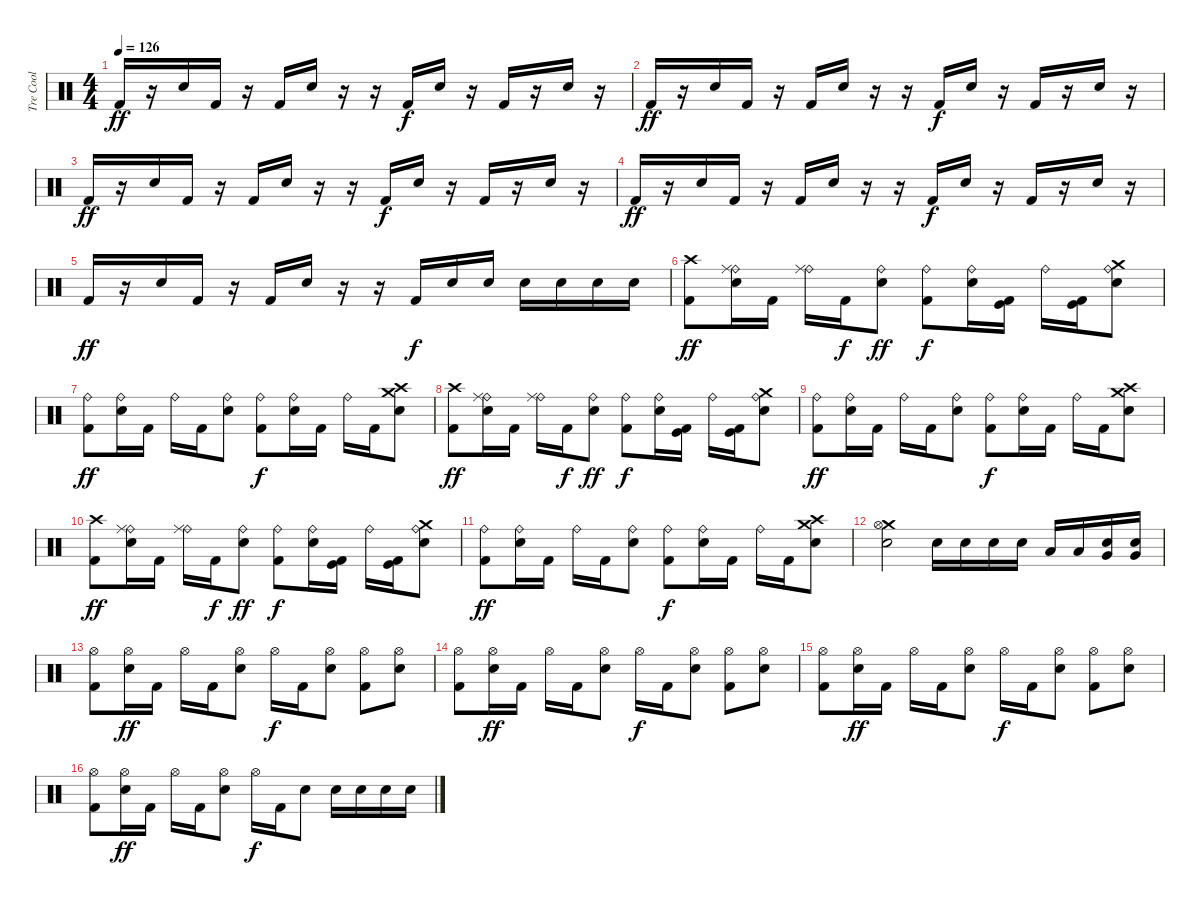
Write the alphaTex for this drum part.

\track ("Tre Cool" "Tre Cool") {instrument percussion}
\staff {score}
\articulation defaults
\ts (4 4)
\tempo 126
\clef neutral
\ks c "Kick (hit) 2".16{dy ff}
r.16 "Snare (hit) 2".16 "Kick (hit) 2".16 r.16 "Kick (hit) 2".16 "Snare (hit) 2".16 r.16 r.16 "Kick (hit) 2".16{dy f} "Snare (hit) 2".16 r.16 "Kick (hit) 2".16 r.16 "Snare (hit) 2".16 r.16 |
"Kick (hit) 2".16{dy ff} r.16 "Snare (hit) 2".16 "Kick (hit) 2".16 r.16 "Kick (hit) 2".16 "Snare (hit) 2".16 r.16 r.16 "Kick (hit) 2".16{dy f} "Snare (hit) 2".16 r.16 "Kick (hit) 2".16 r.16 "Snare (hit) 2".16 r.16 |
"Kick (hit) 2".16{dy ff} r.16 "Snare (hit) 2".16 "Kick (hit) 2".16 r.16 "Kick (hit) 2".16 "Snare (hit) 2".16 r.16 r.16 "Kick (hit) 2".16{dy f} "Snare (hit) 2".16 r.16 "Kick (hit) 2".16 r.16 "Snare (hit) 2".16 r.16 |
"Kick (hit) 2".16{dy ff} r.16 "Snare (hit) 2".16 "Kick (hit) 2".16 r.16 "Kick (hit) 2".16 "Snare (hit) 2".16 r.16 r.16 "Kick (hit) 2".16{dy f} "Snare (hit) 2".16 r.16 "Kick (hit) 2".16 r.16 "Snare (hit) 2".16 r.16 |
"Kick (hit) 2".16{dy ff} r.16 "Snare (hit) 2".16 "Kick (hit) 2".16 r.16 "Kick (hit) 2".16 "Snare (hit) 2".16 r.16 r.16 "Kick (hit) 2".16{dy f} "Snare (hit) 2".16 "Snare (hit) 2".16 "Snare (hit) 2".16 "Snare (hit) 2".16 "Snare (hit) 2".16 "Snare (hit) 2".16 |
("Crash high (hit)" "Kick (hit) 2").8{dy ff} ("Ride (bell)" "Ride (middle)" "Snare (hit) 2").16 "Kick (hit) 2".16 ("Ride (bell)" "Ride (middle)").16 "Kick (hit) 2".16{dy f} ("Snare (hit) 2" "Ride (bell)").8{dy ff} ("Ride (bell)" "Kick (hit) 2").8{dy f} ("Ride (bell)" "Snare (hit) 2").16 ("Kick (hit)" "Kick (hit) 2").16 "Ride (bell)".16 ("Kick (hit)" "Kick (hit) 2").16 ("Ride (bell)" "Crash medium (hit)" "Snare (hit) 2").8 |
("Ride (bell)" "Kick (hit) 2").8{dy ff} ("Ride (bell)" "Snare (hit) 2").16 "Kick (hit) 2".16 "Ride (bell)".16 "Kick (hit) 2".16 ("Ride (bell)" "Snare (hit) 2").8 ("Ride (bell)" "Kick (hit) 2").8{dy f} ("Ride (bell)" "Snare (hit) 2").16 "Kick (hit) 2".16 "Ride (bell)".16 "Kick (hit) 2".16 ("Crash high (hit)" "Crash medium (hit)" "Snare (hit) 2").8 |
("Crash high (hit)" "Kick (hit) 2").8{dy ff} ("Ride (bell)" "Ride (middle)" "Snare (hit) 2").16 "Kick (hit) 2".16 ("Ride (bell)" "Ride (middle)").16 "Kick (hit) 2".16{dy f} ("Snare (hit) 2" "Ride (bell)").8{dy ff} ("Ride (bell)" "Kick (hit) 2").8{dy f} ("Ride (bell)" "Snare (hit) 2").16 ("Kick (hit)" "Kick (hit) 2").16 "Ride (bell)".16 ("Kick (hit)" "Kick (hit) 2").16 ("Ride (bell)" "Crash medium (hit)" "Snare (hit) 2").8 |
("Ride (bell)" "Kick (hit) 2").8{dy ff} ("Ride (bell)" "Snare (hit) 2").16 "Kick (hit) 2".16 "Ride (bell)".16 "Kick (hit) 2".16 ("Ride (bell)" "Snare (hit) 2").8 ("Ride (bell)" "Kick (hit) 2").8{dy f} ("Ride (bell)" "Snare (hit) 2").16 "Kick (hit) 2".16 "Ride (bell)".16 "Kick (hit) 2".16 ("Crash high (hit)" "Crash medium (hit)" "Snare (hit) 2").8 |
("Crash high (hit)" "Kick (hit) 2").8{dy ff} ("Ride (bell)" "Ride (middle)" "Snare (hit) 2").16 "Kick (hit) 2".16 ("Ride (bell)" "Ride (middle)").16 "Kick (hit) 2".16{dy f} ("Snare (hit) 2" "Ride (bell)").8{dy ff} ("Ride (bell)" "Kick (hit) 2").8{dy f} ("Ride (bell)" "Snare (hit) 2").16 ("Kick (hit)" "Kick (hit) 2").16 "Ride (bell)".16 ("Kick (hit)" "Kick (hit) 2").16 ("Ride (bell)" "Crash medium (hit)" "Snare (hit) 2").8 |
("Ride (bell)" "Kick (hit) 2").8{dy ff} ("Ride (bell)" "Snare (hit) 2").16 "Kick (hit) 2".16 "Ride (bell)".16 "Kick (hit) 2".16 ("Ride (bell)" "Snare (hit) 2").8 ("Ride (bell)" "Kick (hit) 2").8{dy f} ("Ride (bell)" "Snare (hit) 2").16 "Kick (hit) 2".16 "Ride (bell)".16 "Kick (hit) 2".16 ("Crash high (hit)" "Crash medium (hit)" "Snare (hit) 2").8 |
("Crash medium (hit)" "Hi-Hat (open)" "Snare (hit) 2").2 "Snare (hit) 2".16 "Snare (hit) 2".16 "Snare (hit) 2".16 "Snare (hit) 2".16 "Low Tom (hit)".16 "Low Tom (hit)".16 ("Very Low Tom (hit)" "Snare (hit) 2").16 ("Very Low Tom (hit)" "Snare (hit) 2").16 |
("Hi-Hat (open)" "Kick (hit) 2").8 ("Hi-Hat (open)" "Snare (hit) 2").16{dy ff} "Kick (hit) 2".16 "Hi-Hat (open)".16 "Kick (hit) 2".16 ("Hi-Hat (open)" "Snare (hit) 2").8 "Hi-Hat (open)".16{dy f} "Kick (hit) 2".16 ("Hi-Hat (open)" "Snare (hit) 2").8 ("Kick (hit) 2" "Hi-Hat (open)").8 ("Snare (hit) 2" "Hi-Hat (open)").8 |
("Hi-Hat (open)" "Kick (hit) 2").8 ("Hi-Hat (open)" "Snare (hit) 2").16{dy ff} "Kick (hit) 2".16 "Hi-Hat (open)".16 "Kick (hit) 2".16 ("Hi-Hat (open)" "Snare (hit) 2").8 "Hi-Hat (open)".16{dy f} "Kick (hit) 2".16 ("Hi-Hat (open)" "Snare (hit) 2").8 ("Kick (hit) 2" "Hi-Hat (open)").8 ("Hi-Hat (open)" "Snare (hit) 2").8 |
("Hi-Hat (open)" "Kick (hit) 2").8 ("Hi-Hat (open)" "Snare (hit) 2").16{dy ff} "Kick (hit) 2".16 "Hi-Hat (open)".16 "Kick (hit) 2".16 ("Hi-Hat (open)" "Snare (hit) 2").8 "Hi-Hat (open)".16{dy f} "Kick (hit) 2".16 ("Hi-Hat (open)" "Snare (hit) 2").8 ("Kick (hit) 2" "Hi-Hat (open)").8 ("Snare (hit) 2" "Hi-Hat (open)").8 |
("Hi-Hat (open)" "Kick (hit) 2").8 ("Hi-Hat (open)" "Snare (hit) 2").16{dy ff} "Kick (hit) 2".16 "Hi-Hat (open)".16 "Kick (hit) 2".16 ("Hi-Hat (open)" "Snare (hit) 2").8 "Hi-Hat (open)".16{dy f} "Kick (hit) 2".16 "Snare (hit) 2".8 "Snare (hit) 2".16 "Snare (hit) 2".16 "Snare (hit) 2".16 "Snare (hit) 2".16
